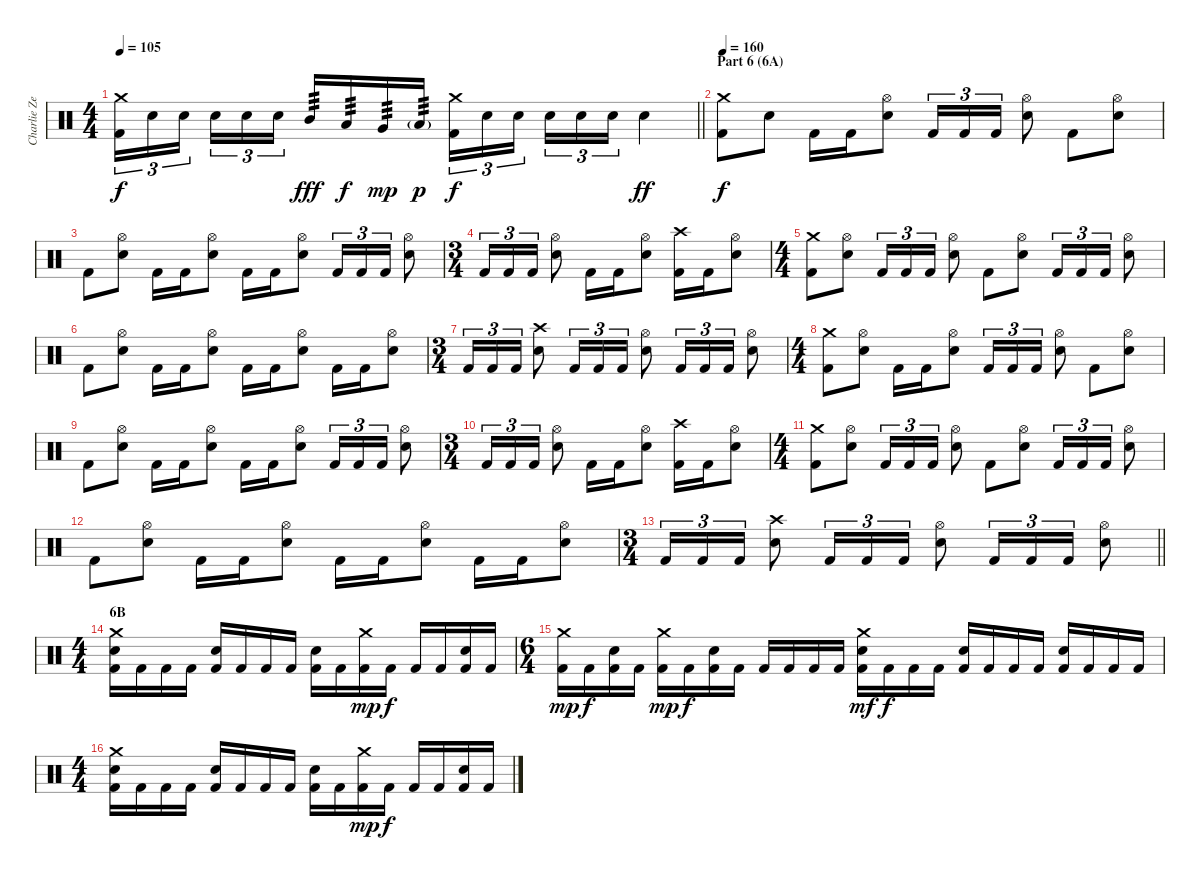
\track ("Charlie Zeleny - Drums" "Charlie Ze") {instrument percussion}
\staff {score}
\articulation defaults
\ts (4 4)
\tempo 105
\clef neutral
\barLineRight lightlight
\ks c
("Crash medium (hit)" "Kick (hit) 2").16{tu (3 2) dy f} "Electric Snare (hit)".16{tu (3 2)} "Electric Snare (hit)".16{tu (3 2) beam splitsecondary} "Electric Snare (hit)".16{tu (3 2)} "Electric Snare (hit)".16{tu (3 2)} "Electric Snare (hit)".16{tu (3 2)} "Mid Tom (hit)".16{tp 3 dy fff} "Low Tom (hit)".16{tp 3 dy f} "Very Low Tom (hit)".16{tp 3 dy mp} "Low Floor Tom (hit)"{g}.16{tp 3 dy p} ("Crash medium (hit)" "Kick (hit) 2").16{tu (3 2) dy f} "Electric Snare (hit)".16{tu (3 2)} "Electric Snare (hit)".16{tu (3 2) beam splitsecondary} "Electric Snare (hit)".16{tu (3 2)} "Electric Snare (hit)".16{tu (3 2)} "Electric Snare (hit)".16{tu (3 2)} "Electric Snare (hit)".4{dy ff} |
\section ("" "Part 6 (6A)")
\tempo 160
("Crash medium (hit)" "Kick (hit) 2").8{dy f} "Electric Snare (hit)".8 "Kick (hit) 2".16 "Kick (hit) 2".16 ("Hi-Hat (open)" "Electric Snare (hit)").8 "Kick (hit) 2".16{tu (3 2)} "Kick (hit) 2".16{tu (3 2)} "Kick (hit) 2".16{tu (3 2)} ("Hi-Hat (open)" "Electric Snare (hit)").8 "Kick (hit) 2".8 ("Hi-Hat (open)" "Electric Snare (hit)").8 |
"Kick (hit) 2".8 ("Hi-Hat (open)" "Electric Snare (hit)").8 "Kick (hit) 2".16 "Kick (hit) 2".16 ("Hi-Hat (open)" "Electric Snare (hit)").8 "Kick (hit) 2".16 "Kick (hit) 2".16 ("Hi-Hat (open)" "Electric Snare (hit)").8 "Kick (hit) 2".16{tu (3 2)} "Kick (hit) 2".16{tu (3 2)} "Kick (hit) 2".16{tu (3 2)} ("Hi-Hat (open)" "Electric Snare (hit)").8 |
\ts (3 4)
"Kick (hit) 2".16{tu (3 2)} "Kick (hit) 2".16{tu (3 2)} "Kick (hit) 2".16{tu (3 2)} ("Hi-Hat (open)" "Electric Snare (hit)").8 "Kick (hit) 2".16 "Kick (hit) 2".16 ("Hi-Hat (open)" "Electric Snare (hit)").8 ("Crash high (hit)" "Kick (hit) 2").16 "Kick (hit) 2".16 ("Hi-Hat (open)" "Electric Snare (hit)").8 |
\ts (4 4)
("Crash medium (hit)" "Kick (hit) 2").8 ("Hi-Hat (open)" "Electric Snare (hit)").8 "Kick (hit) 2".16{tu (3 2)} "Kick (hit) 2".16{tu (3 2)} "Kick (hit) 2".16{tu (3 2)} ("Hi-Hat (open)" "Electric Snare (hit)").8 "Kick (hit) 2".8 ("Hi-Hat (open)" "Electric Snare (hit)").8 "Kick (hit) 2".16{tu (3 2)} "Kick (hit) 2".16{tu (3 2)} "Kick (hit) 2".16{tu (3 2)} ("Hi-Hat (open)" "Electric Snare (hit)").8 |
"Kick (hit) 2".8 ("Hi-Hat (open)" "Electric Snare (hit)").8 "Kick (hit) 2".16 "Kick (hit) 2".16 ("Hi-Hat (open)" "Electric Snare (hit)").8 "Kick (hit) 2".16 "Kick (hit) 2".16 ("Hi-Hat (open)" "Electric Snare (hit)").8 "Kick (hit) 2".16 "Kick (hit) 2".16 ("Hi-Hat (open)" "Electric Snare (hit)").8 |
\ts (3 4)
"Kick (hit) 2".16{tu (3 2)} "Kick (hit) 2".16{tu (3 2)} "Kick (hit) 2".16{tu (3 2)} ("Crash high (hit)" "Electric Snare (hit)").8 "Kick (hit) 2".16{tu (3 2)} "Kick (hit) 2".16{tu (3 2)} "Kick (hit) 2".16{tu (3 2)} ("Hi-Hat (open)" "Electric Snare (hit)").8 "Kick (hit) 2".16{tu (3 2)} "Kick (hit) 2".16{tu (3 2)} "Kick (hit) 2".16{tu (3 2)} ("Hi-Hat (open)" "Electric Snare (hit)").8 |
\ts (4 4)
("Crash medium (hit)" "Kick (hit) 2").8 ("Hi-Hat (open)" "Electric Snare (hit)").8 "Kick (hit) 2".16 "Kick (hit) 2".16 ("Hi-Hat (open)" "Electric Snare (hit)").8 "Kick (hit) 2".16{tu (3 2)} "Kick (hit) 2".16{tu (3 2)} "Kick (hit) 2".16{tu (3 2)} ("Hi-Hat (open)" "Electric Snare (hit)").8 "Kick (hit) 2".8 ("Hi-Hat (open)" "Electric Snare (hit)").8 |
"Kick (hit) 2".8 ("Hi-Hat (open)" "Electric Snare (hit)").8 "Kick (hit) 2".16 "Kick (hit) 2".16 ("Hi-Hat (open)" "Electric Snare (hit)").8 "Kick (hit) 2".16 "Kick (hit) 2".16 ("Hi-Hat (open)" "Electric Snare (hit)").8 "Kick (hit) 2".16{tu (3 2)} "Kick (hit) 2".16{tu (3 2)} "Kick (hit) 2".16{tu (3 2)} ("Hi-Hat (open)" "Electric Snare (hit)").8 |
\ts (3 4)
"Kick (hit) 2".16{tu (3 2)} "Kick (hit) 2".16{tu (3 2)} "Kick (hit) 2".16{tu (3 2)} ("Hi-Hat (open)" "Electric Snare (hit)").8 "Kick (hit) 2".16 "Kick (hit) 2".16 ("Hi-Hat (open)" "Electric Snare (hit)").8 ("Crash high (hit)" "Kick (hit) 2").16 "Kick (hit) 2".16 ("Hi-Hat (open)" "Electric Snare (hit)").8 |
\ts (4 4)
("Crash medium (hit)" "Kick (hit) 2").8 ("Hi-Hat (open)" "Electric Snare (hit)").8 "Kick (hit) 2".16{tu (3 2)} "Kick (hit) 2".16{tu (3 2)} "Kick (hit) 2".16{tu (3 2)} ("Hi-Hat (open)" "Electric Snare (hit)").8 "Kick (hit) 2".8 ("Hi-Hat (open)" "Electric Snare (hit)").8 "Kick (hit) 2".16{tu (3 2)} "Kick (hit) 2".16{tu (3 2)} "Kick (hit) 2".16{tu (3 2)} ("Hi-Hat (open)" "Electric Snare (hit)").8 |
"Kick (hit) 2".8 ("Hi-Hat (open)" "Electric Snare (hit)").8 "Kick (hit) 2".16 "Kick (hit) 2".16 ("Hi-Hat (open)" "Electric Snare (hit)").8 "Kick (hit) 2".16 "Kick (hit) 2".16 ("Hi-Hat (open)" "Electric Snare (hit)").8 "Kick (hit) 2".16 "Kick (hit) 2".16 ("Hi-Hat (open)" "Electric Snare (hit)").8 |
\ts (3 4)
\barLineRight lightlight "Kick (hit) 2".16{tu (3 2)} "Kick (hit) 2".16{tu (3 2)} "Kick (hit) 2".16{tu (3 2)}
("Crash high (hit)" "Electric Snare (hit)").8 "Kick (hit) 2".16{tu (3 2)} "Kick (hit) 2".16{tu (3 2)} "Kick (hit) 2".16{tu (3 2)} ("Hi-Hat (open)" "Electric Snare (hit)").8 "Kick (hit) 2".16{tu (3 2)} "Kick (hit) 2".16{tu (3 2)} "Kick (hit) 2".16{tu (3 2)} ("Hi-Hat (open)" "Electric Snare (hit)").8 |
\ts (4 4)
\section ("" "6B")
("Crash medium (hit)" "Electric Snare (hit)" "Kick (hit) 2").16 "Kick (hit) 2".16 "Kick (hit) 2".16 "Kick (hit) 2".16 ("Electric Snare (hit)" "Kick (hit) 2").16 "Kick (hit) 2".16 "Kick (hit) 2".16 "Kick (hit) 2".16 ("Electric Snare (hit)" "Kick (hit) 2").16 "Kick (hit) 2".16 ("Crash medium (hit)" "Kick (hit) 2").16{dy mp} "Kick (hit) 2".16{dy f} "Kick (hit) 2".16 "Kick (hit) 2".16 ("Electric Snare (hit)" "Kick (hit) 2").16 "Kick (hit) 2".16 |
\ts (6 4)
("Crash medium (hit)" "Kick (hit) 2").16{dy mp} "Kick (hit) 2".16{dy f} ("Electric Snare (hit)" "Kick (hit) 2").16 "Kick (hit) 2".16 ("Crash medium (hit)" "Kick (hit) 2").16{dy mp} "Kick (hit) 2".16{dy f} ("Electric Snare (hit)" "Kick (hit) 2").16 "Kick (hit) 2".16 "Kick (hit) 2".16 "Kick (hit) 2".16 "Kick (hit) 2".16 "Kick (hit) 2".16 ("Crash medium (hit)" "Electric Snare (hit)" "Kick (hit) 2").16{dy mf} "Kick (hit) 2".16{dy f} "Kick (hit) 2".16 "Kick (hit) 2".16 ("Electric Snare (hit)" "Kick (hit) 2").16 "Kick (hit) 2".16 "Kick (hit) 2".16 "Kick (hit) 2".16 ("Electric Snare (hit)" "Kick (hit) 2").16 "Kick (hit) 2".16 "Kick (hit) 2".16 "Kick (hit) 2".16 |
\ts (4 4)
("Crash medium (hit)" "Electric Snare (hit)" "Kick (hit) 2").16 "Kick (hit) 2".16 "Kick (hit) 2".16 "Kick (hit) 2".16 ("Electric Snare (hit)" "Kick (hit) 2").16 "Kick (hit) 2".16 "Kick (hit) 2".16 "Kick (hit) 2".16 ("Electric Snare (hit)" "Kick (hit) 2").16 "Kick (hit) 2".16 ("Crash medium (hit)" "Kick (hit) 2").16{dy mp} "Kick (hit) 2".16{dy f} "Kick (hit) 2".16 "Kick (hit) 2".16 ("Electric Snare (hit)" "Kick (hit) 2").16 "Kick (hit) 2".16
